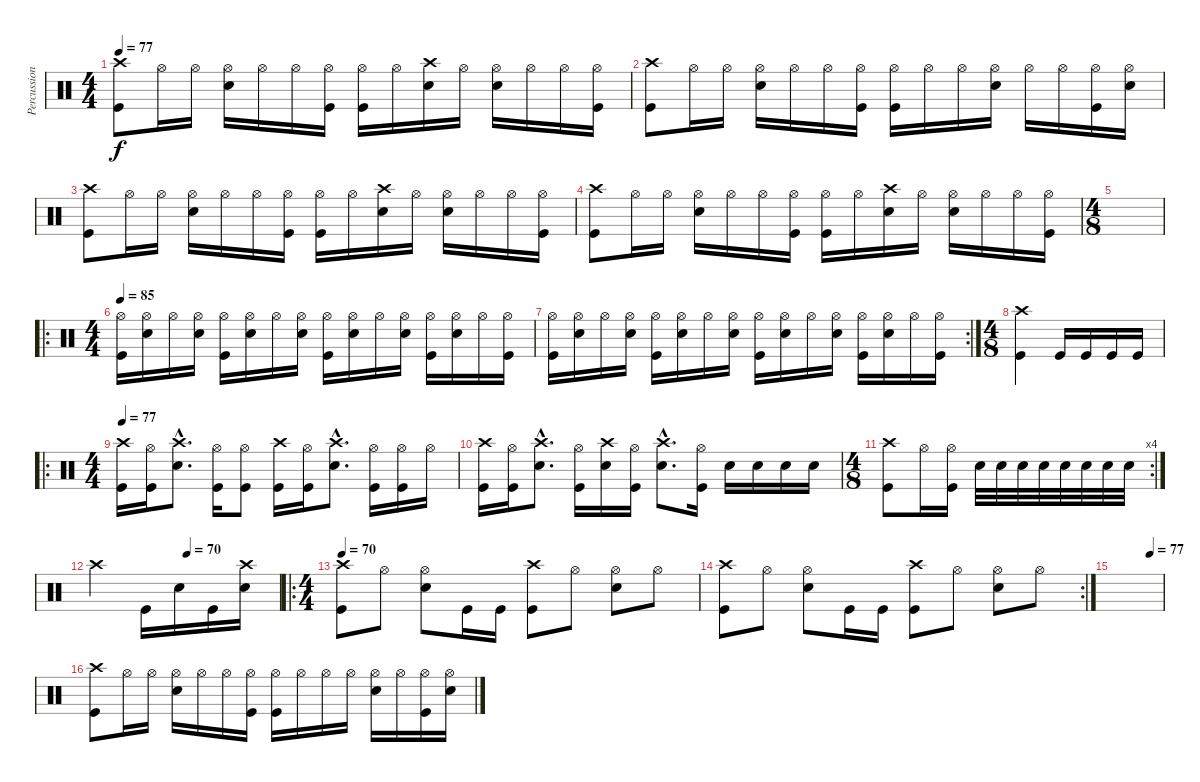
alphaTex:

\track ("Percussion" "Percussion") {instrument percussion}
\staff {score}
\articulation defaults
\ts (4 4)
\tempo 77
\clef neutral
\ks c
("Crash high (hit)" "Kick (hit)").8{dy f} "Hi-Hat (open)".16 "Hi-Hat (open)".16 ("Hi-Hat (open)" "Snare (hit) 2").16 "Hi-Hat (open)".16 "Hi-Hat (open)".16 ("Hi-Hat (open)" "Kick (hit)").16 ("Hi-Hat (open)" "Kick (hit)").16 "Hi-Hat (open)".16 ("Crash high (hit)" "Snare (hit) 2").16 "Hi-Hat (open)".16 ("Hi-Hat (open)" "Snare (hit) 2").16 "Hi-Hat (open)".16 "Hi-Hat (open)".16 ("Hi-Hat (open)" "Kick (hit)").16 |
("Crash high (hit)" "Kick (hit)").8 "Hi-Hat (open)".16 "Hi-Hat (open)".16 ("Hi-Hat (open)" "Snare (hit) 2").16 "Hi-Hat (open)".16 "Hi-Hat (open)".16 ("Hi-Hat (open)" "Kick (hit)").16 ("Hi-Hat (open)" "Kick (hit)").16 "Hi-Hat (open)".16 "Hi-Hat (open)".16 ("Hi-Hat (open)" "Snare (hit) 2").16 "Hi-Hat (open)".16 "Hi-Hat (open)".16 ("Hi-Hat (open)" "Kick (hit)").16 ("Hi-Hat (open)" "Snare (hit) 2").16 |
("Crash high (hit)" "Kick (hit)").8 "Hi-Hat (open)".16 "Hi-Hat (open)".16 ("Hi-Hat (open)" "Snare (hit) 2").16 "Hi-Hat (open)".16 "Hi-Hat (open)".16 ("Hi-Hat (open)" "Kick (hit)").16 ("Hi-Hat (open)" "Kick (hit)").16 "Hi-Hat (open)".16 ("Crash high (hit)" "Snare (hit) 2").16 "Hi-Hat (open)".16 ("Hi-Hat (open)" "Snare (hit) 2").16 "Hi-Hat (open)".16 "Hi-Hat (open)".16 ("Hi-Hat (open)" "Kick (hit)").16 |
("Crash high (hit)" "Kick (hit)").8 "Hi-Hat (open)".16 "Hi-Hat (open)".16 ("Hi-Hat (open)" "Snare (hit) 2").16 "Hi-Hat (open)".16 "Hi-Hat (open)".16 ("Hi-Hat (open)" "Kick (hit)").16 ("Hi-Hat (open)" "Kick (hit)").16 "Hi-Hat (open)".16 ("Crash high (hit)" "Snare (hit) 2").16 "Hi-Hat (open)".16 ("Hi-Hat (open)" "Snare (hit) 2").16 "Hi-Hat (open)".16 "Hi-Hat (open)".16 ("Hi-Hat (open)" "Kick (hit)").16 |
\ts (4 8)
|
\ro
\ts (4 4)
\tempo 85
("Hi-Hat (open)" "Kick (hit)").16 ("Hi-Hat (open)" "Snare (hit) 2").16 "Hi-Hat (open)".16 ("Hi-Hat (open)" "Snare (hit) 2").16 ("Hi-Hat (open)" "Kick (hit)").16 ("Hi-Hat (open)" "Snare (hit) 2").16 "Hi-Hat (open)".16 ("Hi-Hat (open)" "Snare (hit) 2").16 ("Hi-Hat (open)" "Kick (hit)").16 ("Hi-Hat (open)" "Snare (hit) 2").16 "Hi-Hat (open)".16 ("Hi-Hat (open)" "Snare (hit) 2").16 ("Hi-Hat (open)" "Kick (hit)").16 ("Hi-Hat (open)" "Snare (hit) 2").16 "Hi-Hat (open)".16 ("Hi-Hat (open)" "Kick (hit)").16 |
\rc 2
("Hi-Hat (open)" "Kick (hit)").16 ("Hi-Hat (open)" "Snare (hit) 2").16 "Hi-Hat (open)".16 ("Hi-Hat (open)" "Snare (hit) 2").16 ("Hi-Hat (open)" "Kick (hit)").16 ("Hi-Hat (open)" "Snare (hit) 2").16 "Hi-Hat (open)".16 ("Hi-Hat (open)" "Snare (hit) 2").16 ("Hi-Hat (open)" "Kick (hit)").16 ("Hi-Hat (open)" "Snare (hit) 2").16 "Hi-Hat (open)".16 ("Hi-Hat (open)" "Snare (hit) 2").16 ("Hi-Hat (open)" "Kick (hit)").16 ("Hi-Hat (open)" "Snare (hit) 2").16 "Hi-Hat (open)".16 ("Hi-Hat (open)" "Kick (hit)").16 |
\ts (4 8)
("Crash high (hit)" "Kick (hit)").4 "Kick (hit)".16 "Kick (hit)".16 "Kick (hit)".16 "Kick (hit)".16 |
\ro
\ts (4 4)
\tempo 77
("Crash high (hit)" "Kick (hit)").16 ("Hi-Hat (open)" "Kick (hit)").16 ("Crash high (hit)"{hac} "Snare (hit) 2"{hac}).8{d} ("Hi-Hat (open)" "Kick (hit)").16 ("Hi-Hat (open)" "Kick (hit)").8 ("Crash high (hit)" "Kick (hit)").16 ("Hi-Hat (open)" "Kick (hit)").16 ("Crash high (hit)"{hac} "Snare (hit) 2"{hac}).8{d} ("Hi-Hat (open)" "Kick (hit)").16 ("Hi-Hat (open)" "Kick (hit)").16 "Hi-Hat (open)".16 |
("Crash high (hit)" "Kick (hit)").16 ("Hi-Hat (open)" "Kick (hit)").16 ("Crash high (hit)"{hac} "Snare (hit) 2"{hac}).8{d} ("Hi-Hat (open)" "Kick (hit)").16 ("Crash high (hit)" "Snare (hit) 2").16 ("Hi-Hat (open)" "Kick (hit)").16 ("Crash high (hit)"{hac} "Snare (hit) 2"{hac}).8{d} ("Hi-Hat (open)" "Kick (hit)").16 "Snare (hit) 2".16 "Snare (hit) 2".16 "Snare (hit) 2".16 "Snare (hit) 2".16 |
\rc 4
\ts (4 8)
("Crash high (hit)" "Kick (hit)").8 "Hi-Hat (open)".16 ("Hi-Hat (open)" "Kick (hit)").16 "Snare (hit) 2".32 "Snare (hit) 2".32 "Snare (hit) 2".32 "Snare (hit) 2".32 "Snare (hit) 2".32 "Snare (hit) 2".32 "Snare (hit) 2".32 "Snare (hit) 2".32 |
\tempo (70 0.5)
"Crash high (hit)".4 "Kick (hit)".16 "Snare (hit) 2".16 "Kick (hit)".16 ("Crash high (hit)" "Snare (hit) 2").16 |
\ro
\ts (4 4)
\tempo 70
("Crash high (hit)" "Kick (hit)").8 "Hi-Hat (open)".8 ("Hi-Hat (open)" "Snare (hit) 2").8 "Kick (hit)".16 "Kick (hit)".16 ("Crash high (hit)" "Kick (hit)").8 "Hi-Hat (open)".8 ("Hi-Hat (open)" "Snare (hit) 2").8 "Hi-Hat (open)".8 |
\rc 2
("Crash high (hit)" "Kick (hit)").8 "Hi-Hat (open)".8 ("Hi-Hat (open)" "Snare (hit) 2").8 "Kick (hit)".16 "Kick (hit)".16 ("Crash high (hit)" "Kick (hit)").8 "Hi-Hat (open)".8 ("Hi-Hat (open)" "Snare (hit) 2").8 "Hi-Hat (open)".8 |
\tempo (77 0.75)
|
("Crash high (hit)" "Kick (hit)").8 "Hi-Hat (open)".16 "Hi-Hat (open)".16 ("Hi-Hat (open)" "Snare (hit) 2").16 "Hi-Hat (open)".16 "Hi-Hat (open)".16 ("Hi-Hat (open)" "Kick (hit)").16 ("Hi-Hat (open)" "Kick (hit)").16 "Hi-Hat (open)".16 "Hi-Hat (open)".16 "Hi-Hat (open)".16 ("Hi-Hat (open)" "Snare (hit) 2").16 "Hi-Hat (open)".16 ("Hi-Hat (open)" "Kick (hit)").16 ("Hi-Hat (open)" "Snare (hit) 2").16
